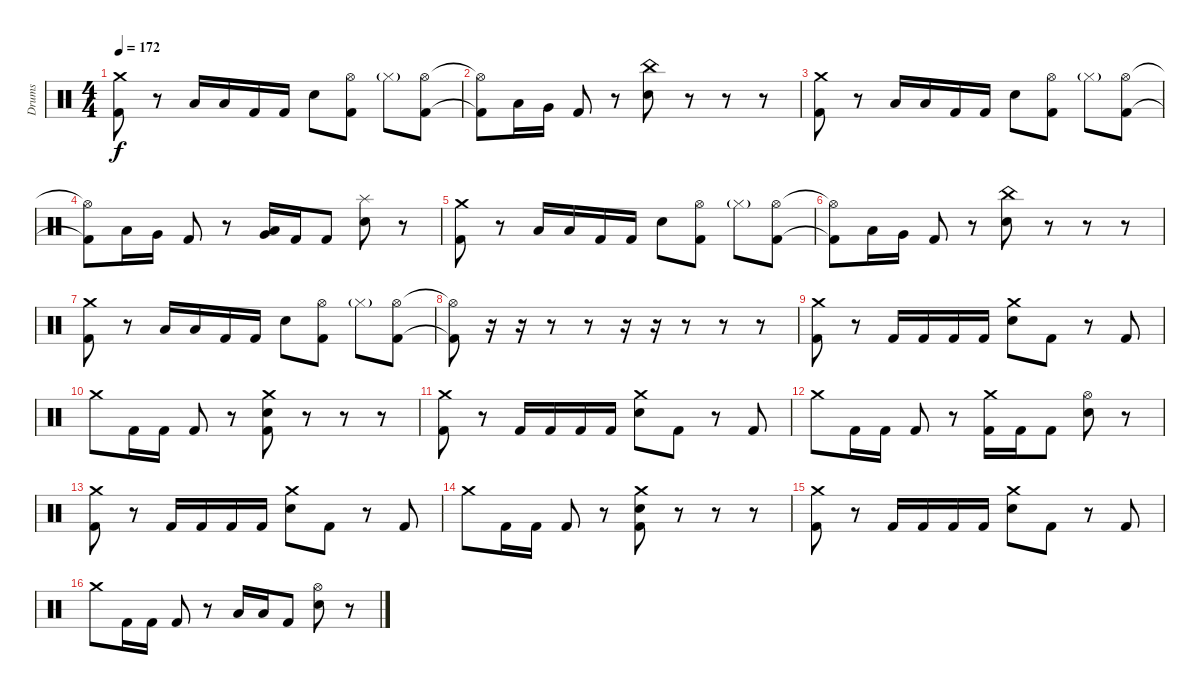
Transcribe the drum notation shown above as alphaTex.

\track ("Drums" "Drums") {instrument percussion}
\staff {score}
\articulation defaults
\ts (4 4)
\tempo 172
\clef neutral
\ks c
("Crash medium (hit)" "Kick (hit) 2").8{dy f} r.8 "Low Tom (hit)".16 "Low Tom (hit)".16 "Kick (hit) 2".16 "Kick (hit) 2".16 "Electric Snare (hit)".8 ("Hi-Hat (open)" "Kick (hit) 2").8 "Hi-Hat (closed)"{g}.8 ("Hi-Hat (open)" "Kick (hit) 2").8 |
("Hi-Hat (open)"{t} "Kick (hit) 2"{t}).8 "Low Tom (hit)".16 "Very Low Tom (hit)".16 "Kick (hit) 2".8 r.8 ("China (hit)" "Electric Snare (hit)").8 r.8 r.8 r.8 |
("Crash medium (hit)" "Kick (hit) 2").8 r.8 "Low Tom (hit)".16 "Low Tom (hit)".16 "Kick (hit) 2".16 "Kick (hit) 2".16 "Electric Snare (hit)".8 ("Hi-Hat (open)" "Kick (hit) 2").8 "Hi-Hat (closed)"{g}.8 ("Hi-Hat (open)" "Kick (hit) 2").8 |
("Hi-Hat (open)"{t} "Kick (hit) 2"{t}).8 "Low Tom (hit)".16 "Very Low Tom (hit)".16 "Kick (hit) 2".8 r.8 ("Very Low Tom (hit)" "Low Floor Tom (hit)").16 "Kick (hit) 2".16 "Kick (hit) 2".8 ("Splash (hit)" "Electric Snare (hit)").8 r.8 |
("Crash medium (hit)" "Kick (hit) 2").8 r.8 "Low Tom (hit)".16 "Low Tom (hit)".16 "Kick (hit) 2".16 "Kick (hit) 2".16 "Electric Snare (hit)".8 ("Hi-Hat (open)" "Kick (hit) 2").8 "Hi-Hat (closed)"{g}.8 ("Hi-Hat (open)" "Kick (hit) 2").8 |
("Hi-Hat (open)"{t} "Kick (hit) 2"{t}).8 "Low Tom (hit)".16 "Very Low Tom (hit)".16 "Kick (hit) 2".8 r.8 ("China (hit)" "Electric Snare (hit)").8 r.8 r.8 r.8 |
("Crash medium (hit)" "Kick (hit) 2").8 r.8 "Low Tom (hit)".16 "Low Tom (hit)".16 "Kick (hit) 2".16 "Kick (hit) 2".16 "Electric Snare (hit)".8 ("Hi-Hat (open)" "Kick (hit) 2").8 "Hi-Hat (closed)"{g}.8 ("Hi-Hat (open)" "Kick (hit) 2").8 |
("Hi-Hat (open)"{t} "Kick (hit) 2"{t}).8 r.16 r.16 r.8 r.8 r.16 r.16 r.8 r.8 r.8 |
("Crash medium (hit)" "Kick (hit) 2").8 r.8 "Kick (hit) 2".16 "Kick (hit) 2".16 "Kick (hit) 2".16 "Kick (hit) 2".16 ("Crash medium (hit)" "Electric Snare (hit)").8 "Kick (hit) 2".8 r.8 "Kick (hit) 2".8 |
"Crash medium (hit)".8 "Kick (hit) 2".16 "Kick (hit) 2".16 "Kick (hit) 2".8 r.8 ("Crash medium (hit)" "Electric Snare (hit)" "Kick (hit) 2").8 r.8 r.8 r.8 |
("Crash medium (hit)" "Kick (hit) 2").8 r.8 "Kick (hit) 2".16 "Kick (hit) 2".16 "Kick (hit) 2".16 "Kick (hit) 2".16 ("Crash medium (hit)" "Electric Snare (hit)").8 "Kick (hit) 2".8 r.8 "Kick (hit) 2".8 |
"Crash medium (hit)".8 "Kick (hit) 2".16 "Kick (hit) 2".16 "Kick (hit) 2".8 r.8 ("Crash medium (hit)" "Kick (hit) 2").16 "Kick (hit) 2".16 "Kick (hit) 2".8 ("Hi-Hat (open)" "Electric Snare (hit)").8 r.8 |
("Crash medium (hit)" "Kick (hit) 2").8 r.8 "Kick (hit) 2".16 "Kick (hit) 2".16 "Kick (hit) 2".16 "Kick (hit) 2".16 ("Crash medium (hit)" "Electric Snare (hit)").8 "Kick (hit) 2".8 r.8 "Kick (hit) 2".8 |
"Crash medium (hit)".8 "Kick (hit) 2".16 "Kick (hit) 2".16 "Kick (hit) 2".8 r.8 ("Crash medium (hit)" "Electric Snare (hit)" "Kick (hit) 2").8 r.8 r.8 r.8 |
("Crash medium (hit)" "Kick (hit) 2").8 r.8 "Kick (hit) 2".16 "Kick (hit) 2".16 "Kick (hit) 2".16 "Kick (hit) 2".16 ("Crash medium (hit)" "Electric Snare (hit)").8 "Kick (hit) 2".8 r.8 "Kick (hit) 2".8 |
"Crash medium (hit)".8 "Kick (hit) 2".16 "Kick (hit) 2".16 "Kick (hit) 2".8 r.8 "Low Tom (hit)".16 "Low Tom (hit)".16 "Kick (hit) 2".8 ("Hi-Hat (open)" "Electric Snare (hit)").8 r.8
